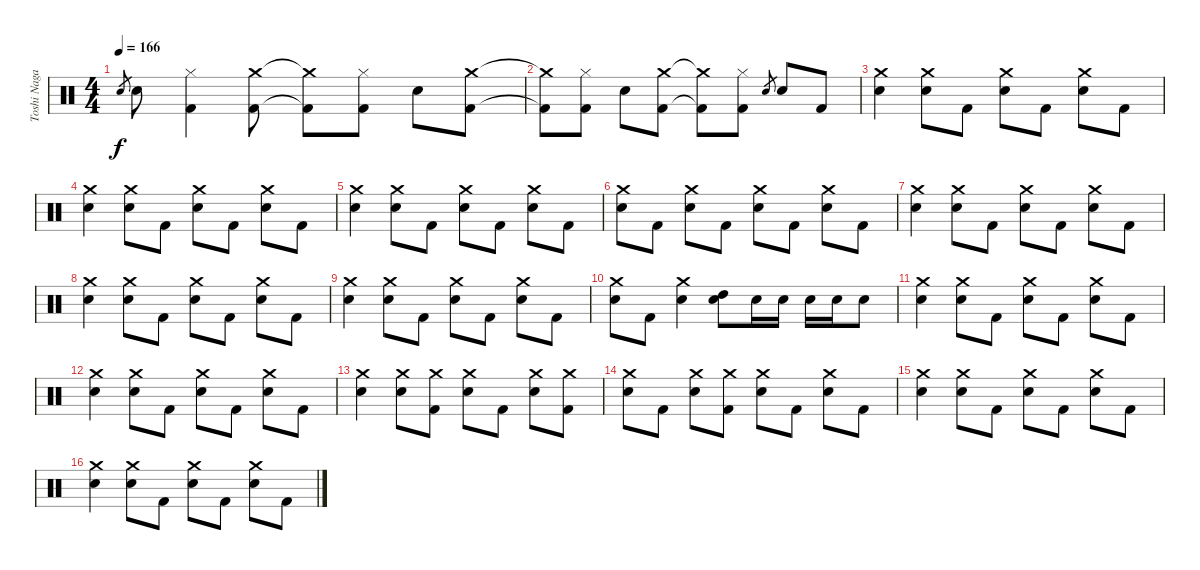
\track ("Toshi Nagai" "Toshi Naga") {instrument percussion}
\staff {score}
\articulation defaults
\ts (4 4)
\tempo 166
\clef neutral
\ks c "Electric Snare (hit)".8{gr dy f} "Electric Snare (hit)".8
("Hi-Hat (closed)" "Kick (hit) 2").4 ("Crash medium (hit)" "Kick (hit) 2").8 ("Crash medium (hit)"{t} "Kick (hit) 2"{t}).8 ("Hi-Hat (closed)" "Kick (hit) 2").8 "Electric Snare (hit)".8 ("Crash medium (hit)" "Kick (hit) 2").8 |
("Crash medium (hit)"{t} "Kick (hit) 2"{t}).8 ("Hi-Hat (closed)" "Kick (hit) 2").8 "Electric Snare (hit)".8 ("Crash medium (hit)" "Kick (hit) 2").8 ("Crash medium (hit)"{t} "Kick (hit) 2"{t}).8 ("Hi-Hat (closed)" "Kick (hit) 2").8 "Electric Snare (hit)".8{gr} "Electric Snare (hit)".8 "Kick (hit) 2".8 |
("Crash medium (hit)" "Electric Snare (hit)").4 ("Crash medium (hit)" "Electric Snare (hit)").8 "Kick (hit) 2".8 ("Crash medium (hit)" "Electric Snare (hit)").8 "Kick (hit) 2".8 ("Crash medium (hit)" "Electric Snare (hit)").8 "Kick (hit) 2".8 |
("Crash medium (hit)" "Electric Snare (hit)").4 ("Crash medium (hit)" "Electric Snare (hit)").8 "Kick (hit) 2".8 ("Crash medium (hit)" "Electric Snare (hit)").8 "Kick (hit) 2".8 ("Crash medium (hit)" "Electric Snare (hit)").8 "Kick (hit) 2".8 |
("Crash medium (hit)" "Electric Snare (hit)").4 ("Crash medium (hit)" "Electric Snare (hit)").8 "Kick (hit) 2".8 ("Crash medium (hit)" "Electric Snare (hit)").8 "Kick (hit) 2".8 ("Crash medium (hit)" "Electric Snare (hit)").8 "Kick (hit) 2".8 |
("Crash medium (hit)" "Electric Snare (hit)").8 "Kick (hit) 2".8 ("Crash medium (hit)" "Electric Snare (hit)").8 "Kick (hit) 2".8 ("Crash medium (hit)" "Electric Snare (hit)").8 "Kick (hit) 2".8 ("Crash medium (hit)" "Electric Snare (hit)").8 "Kick (hit) 2".8 |
("Crash medium (hit)" "Electric Snare (hit)").4 ("Crash medium (hit)" "Electric Snare (hit)").8 "Kick (hit) 2".8 ("Crash medium (hit)" "Electric Snare (hit)").8 "Kick (hit) 2".8 ("Crash medium (hit)" "Electric Snare (hit)").8 "Kick (hit) 2".8 |
("Crash medium (hit)" "Electric Snare (hit)").4 ("Crash medium (hit)" "Electric Snare (hit)").8 "Kick (hit) 2".8 ("Crash medium (hit)" "Electric Snare (hit)").8 "Kick (hit) 2".8 ("Crash medium (hit)" "Electric Snare (hit)").8 "Kick (hit) 2".8 |
("Crash medium (hit)" "Electric Snare (hit)").4 ("Crash medium (hit)" "Electric Snare (hit)").8 "Kick (hit) 2".8 ("Crash medium (hit)" "Electric Snare (hit)").8 "Kick (hit) 2".8 ("Crash medium (hit)" "Electric Snare (hit)").8 "Kick (hit) 2".8 |
("Crash medium (hit)" "Electric Snare (hit)").8 "Kick (hit) 2".8 ("Crash medium (hit)" "Electric Snare (hit)").4 ("High Tom (hit)" "Electric Snare (hit)").8 "Electric Snare (hit)".16 "Electric Snare (hit)".16 "Electric Snare (hit)".16 "Electric Snare (hit)".16 "Electric Snare (hit)".8 |
("Crash medium (hit)" "Electric Snare (hit)").4 ("Crash medium (hit)" "Electric Snare (hit)").8 "Kick (hit) 2".8 ("Crash medium (hit)" "Electric Snare (hit)").8 "Kick (hit) 2".8 ("Crash medium (hit)" "Electric Snare (hit)").8 "Kick (hit) 2".8 |
("Crash medium (hit)" "Electric Snare (hit)").4 ("Crash medium (hit)" "Electric Snare (hit)").8 "Kick (hit) 2".8 ("Crash medium (hit)" "Electric Snare (hit)").8 "Kick (hit) 2".8 ("Crash medium (hit)" "Electric Snare (hit)").8 "Kick (hit) 2".8 |
("Crash medium (hit)" "Electric Snare (hit)").4 ("Crash medium (hit)" "Electric Snare (hit)").8 ("Crash medium (hit)" "Kick (hit) 2").8 ("Crash medium (hit)" "Electric Snare (hit)").8 "Kick (hit) 2".8 ("Crash medium (hit)" "Electric Snare (hit)").8 ("Crash medium (hit)" "Kick (hit) 2").8 |
("Crash medium (hit)" "Electric Snare (hit)").8 "Kick (hit) 2".8 ("Crash medium (hit)" "Electric Snare (hit)").8 ("Crash medium (hit)" "Kick (hit) 2").8 ("Crash medium (hit)" "Electric Snare (hit)").8 "Kick (hit) 2".8 ("Crash medium (hit)" "Electric Snare (hit)").8 "Kick (hit) 2".8 |
("Crash medium (hit)" "Electric Snare (hit)").4 ("Crash medium (hit)" "Electric Snare (hit)").8 "Kick (hit) 2".8 ("Crash medium (hit)" "Electric Snare (hit)").8 "Kick (hit) 2".8 ("Crash medium (hit)" "Electric Snare (hit)").8 "Kick (hit) 2".8 |
("Crash medium (hit)" "Electric Snare (hit)").4 ("Crash medium (hit)" "Electric Snare (hit)").8 "Kick (hit) 2".8 ("Crash medium (hit)" "Electric Snare (hit)").8 "Kick (hit) 2".8 ("Crash medium (hit)" "Electric Snare (hit)").8 "Kick (hit) 2".8
